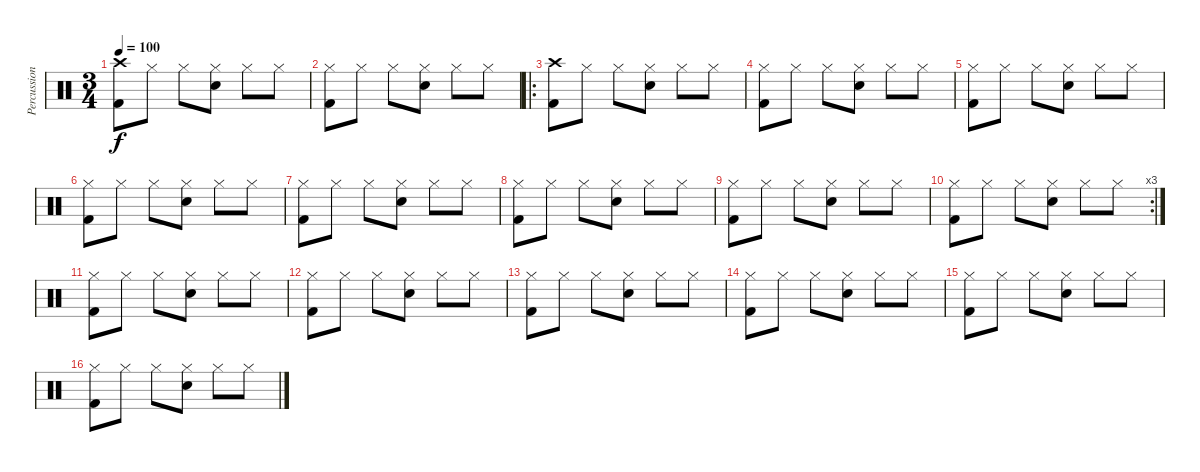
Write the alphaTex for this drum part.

\track ("Percussion" "Percussion") {instrument percussion}
\staff {score}
\articulation defaults
\ts (3 4)
\tempo 100
\clef neutral
\ks c
("Crash high (hit)" "Kick (hit) 2").8{dy f} "Hi-Hat (closed)".8 "Hi-Hat (closed)".8 ("Hi-Hat (closed)" "Snare (hit) 2").8 "Hi-Hat (closed)".8 "Hi-Hat (closed)".8 |
("Hi-Hat (closed)" "Kick (hit) 2").8 "Hi-Hat (closed)".8 "Hi-Hat (closed)".8 ("Hi-Hat (closed)" "Snare (hit) 2").8 "Hi-Hat (closed)".8 "Hi-Hat (closed)".8 |
\ro
("Crash high (hit)" "Kick (hit) 2").8 "Hi-Hat (closed)".8 "Hi-Hat (closed)".8 ("Hi-Hat (closed)" "Snare (hit) 2").8 "Hi-Hat (closed)".8 "Hi-Hat (closed)".8 |
("Hi-Hat (closed)" "Kick (hit) 2").8 "Hi-Hat (closed)".8 "Hi-Hat (closed)".8 ("Hi-Hat (closed)" "Snare (hit) 2").8 "Hi-Hat (closed)".8 "Hi-Hat (closed)".8 |
("Hi-Hat (closed)" "Kick (hit) 2").8 "Hi-Hat (closed)".8 "Hi-Hat (closed)".8 ("Hi-Hat (closed)" "Snare (hit) 2").8 "Hi-Hat (closed)".8 "Hi-Hat (closed)".8 |
("Hi-Hat (closed)" "Kick (hit) 2").8 "Hi-Hat (closed)".8 "Hi-Hat (closed)".8 ("Hi-Hat (closed)" "Snare (hit) 2").8 "Hi-Hat (closed)".8 "Hi-Hat (closed)".8 |
("Hi-Hat (closed)" "Kick (hit) 2").8 "Hi-Hat (closed)".8 "Hi-Hat (closed)".8 ("Hi-Hat (closed)" "Snare (hit) 2").8 "Hi-Hat (closed)".8 "Hi-Hat (closed)".8 |
("Hi-Hat (closed)" "Kick (hit) 2").8 "Hi-Hat (closed)".8 "Hi-Hat (closed)".8 ("Hi-Hat (closed)" "Snare (hit) 2").8 "Hi-Hat (closed)".8 "Hi-Hat (closed)".8 |
("Hi-Hat (closed)" "Kick (hit) 2").8 "Hi-Hat (closed)".8 "Hi-Hat (closed)".8 ("Hi-Hat (closed)" "Snare (hit) 2").8 "Hi-Hat (closed)".8 "Hi-Hat (closed)".8 |
\rc 3
("Hi-Hat (closed)" "Kick (hit) 2").8 "Hi-Hat (closed)".8 "Hi-Hat (closed)".8 ("Hi-Hat (closed)" "Snare (hit) 2").8 "Hi-Hat (closed)".8 "Hi-Hat (closed)".8 |
("Hi-Hat (closed)" "Kick (hit) 2").8 "Hi-Hat (closed)".8 "Hi-Hat (closed)".8 ("Hi-Hat (closed)" "Snare (hit) 2").8 "Hi-Hat (closed)".8 "Hi-Hat (closed)".8 |
("Hi-Hat (closed)" "Kick (hit) 2").8 "Hi-Hat (closed)".8 "Hi-Hat (closed)".8 ("Hi-Hat (closed)" "Snare (hit) 2").8 "Hi-Hat (closed)".8 "Hi-Hat (closed)".8 |
("Hi-Hat (closed)" "Kick (hit) 2").8 "Hi-Hat (closed)".8 "Hi-Hat (closed)".8 ("Hi-Hat (closed)" "Snare (hit) 2").8 "Hi-Hat (closed)".8 "Hi-Hat (closed)".8 |
("Hi-Hat (closed)" "Kick (hit) 2").8 "Hi-Hat (closed)".8 "Hi-Hat (closed)".8 ("Hi-Hat (closed)" "Snare (hit) 2").8 "Hi-Hat (closed)".8 "Hi-Hat (closed)".8 |
("Hi-Hat (closed)" "Kick (hit) 2").8 "Hi-Hat (closed)".8 "Hi-Hat (closed)".8 ("Hi-Hat (closed)" "Snare (hit) 2").8 "Hi-Hat (closed)".8 "Hi-Hat (closed)".8 |
("Hi-Hat (closed)" "Kick (hit) 2").8 "Hi-Hat (closed)".8 "Hi-Hat (closed)".8 ("Hi-Hat (closed)" "Snare (hit) 2").8 "Hi-Hat (closed)".8 "Hi-Hat (closed)".8
